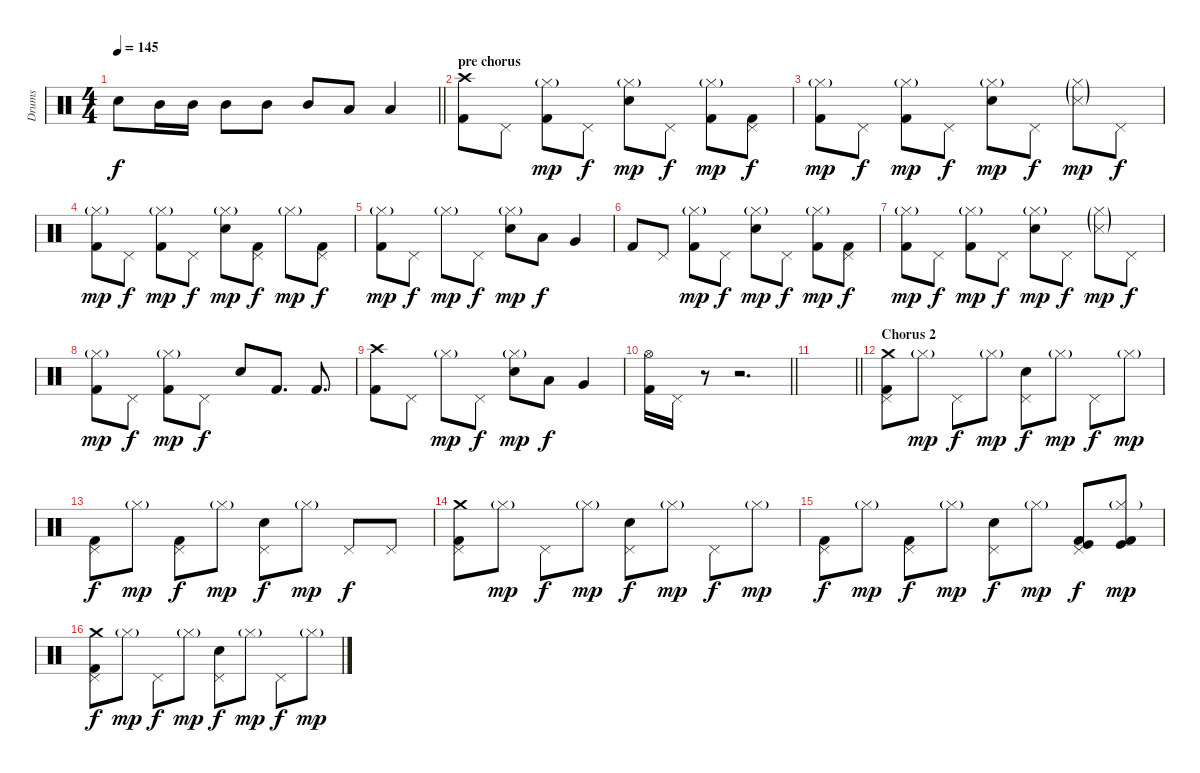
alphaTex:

\track ("Drums" "Drums") {instrument percussion}
\staff {score}
\articulation defaults
\ts (4 4)
\tempo 145
\clef neutral
\barLineRight lightlight
\ks c "Snare (hit) 2".8{dy f} "Mid Tom (hit)".16 "Mid Tom (hit)".16 "Mid Tom (hit)".8 "Mid Tom (hit)".8 "Mid Tom (hit)".8 "Low Tom (hit)".8 "Low Floor Tom (hit)".4
|
\section ("" "pre chorus")
("Crash high (hit)" "Kick (hit) 2").8 "Pedal Hi-Hat (hit)".8 ("Hi-Hat (closed)"{g} "Kick (hit) 2").8{dy mp} "Pedal Hi-Hat (hit)".8{dy f} ("Hi-Hat (closed)"{g} "Snare (hit) 2").8{dy mp} "Pedal Hi-Hat (hit)".8{dy f} ("Hi-Hat (closed)"{g} "Kick (hit) 2").8{dy mp} ("Pedal Hi-Hat (hit)" "Kick (hit) 2").8{dy f} |
("Hi-Hat (closed)"{g} "Kick (hit) 2").8{dy mp} "Pedal Hi-Hat (hit)".8{dy f} ("Hi-Hat (closed)"{g} "Kick (hit) 2").8{dy mp} "Pedal Hi-Hat (hit)".8{dy f} ("Hi-Hat (closed)"{g} "Snare (hit) 2").8{dy mp} "Pedal Hi-Hat (hit)".8{dy f} ("Hi-Hat (closed)"{g} "Snare (side stick) 3"{g}).8{dy mp} "Pedal Hi-Hat (hit)".8{dy f} |
("Hi-Hat (closed)"{g} "Kick (hit) 2").8{dy mp} "Pedal Hi-Hat (hit)".8{dy f} ("Hi-Hat (closed)"{g} "Kick (hit) 2").8{dy mp} "Pedal Hi-Hat (hit)".8{dy f} ("Hi-Hat (closed)"{g} "Snare (hit) 2").8{dy mp} ("Pedal Hi-Hat (hit)" "Kick (hit) 2").8{dy f} "Hi-Hat (closed)"{g}.8{dy mp} ("Pedal Hi-Hat (hit)" "Kick (hit) 2").8{dy f} |
("Hi-Hat (closed)"{g} "Kick (hit) 2").8{dy mp} "Pedal Hi-Hat (hit)".8{dy f} "Hi-Hat (closed)"{g}.8{dy mp} "Pedal Hi-Hat (hit)".8{dy f} ("Hi-Hat (closed)"{g} "Snare (hit) 2").8{dy mp} "Low Tom (hit)".8{dy f} "Very Low Tom (hit)".4 |
"Kick (hit) 2".8 "Pedal Hi-Hat (hit)".8 ("Hi-Hat (closed)"{g} "Kick (hit) 2").8{dy mp} "Pedal Hi-Hat (hit)".8{dy f} ("Hi-Hat (closed)"{g} "Snare (hit) 2").8{dy mp} "Pedal Hi-Hat (hit)".8{dy f} ("Hi-Hat (closed)"{g} "Kick (hit) 2").8{dy mp} ("Pedal Hi-Hat (hit)" "Kick (hit) 2").8{dy f} |
("Hi-Hat (closed)"{g} "Kick (hit) 2").8{dy mp} "Pedal Hi-Hat (hit)".8{dy f} ("Hi-Hat (closed)"{g} "Kick (hit) 2").8{dy mp} "Pedal Hi-Hat (hit)".8{dy f} ("Hi-Hat (closed)"{g} "Snare (hit) 2").8{dy mp} "Pedal Hi-Hat (hit)".8{dy f} ("Hi-Hat (closed)"{g} "Snare (side stick) 3"{g}).8{dy mp} "Pedal Hi-Hat (hit)".8{dy f} |
("Hi-Hat (closed)"{g} "Kick (hit) 2").8{dy mp} "Pedal Hi-Hat (hit)".8{dy f} ("Hi-Hat (closed)"{g} "Kick (hit) 2").8{dy mp} "Pedal Hi-Hat (hit)".8{dy f} "Snare (hit) 2".8 "Kick (hit) 2".8{d} "Kick (hit) 2".8{d} |
("Crash high (hit)" "Kick (hit) 2").8 "Pedal Hi-Hat (hit)".8 "Hi-Hat (closed)"{g}.8{dy mp} "Pedal Hi-Hat (hit)".8{dy f} ("Hi-Hat (closed)"{g} "Snare (hit) 2").8{dy mp} "Low Tom (hit)".8{dy f} "Very Low Tom (hit)".4 |
\barLineRight lightlight
("Hi-Hat (open)" "Kick (hit) 2").16 "Pedal Hi-Hat (hit)".16 r.8 r.2{d} |
\barLineRight lightlight
|
\section ("" "Chorus 2")
("Pedal Hi-Hat (hit)" "Crash medium (hit)" "Kick (hit) 2").8 "Hi-Hat (closed)"{g}.8{dy mp} "Pedal Hi-Hat (hit)".8{dy f} "Hi-Hat (closed)"{g}.8{dy mp} ("Pedal Hi-Hat (hit)" "Snare (hit) 2").8{dy f} "Hi-Hat (closed)"{g}.8{dy mp} "Pedal Hi-Hat (hit)".8{dy f} "Hi-Hat (closed)"{g}.8{dy mp} |
("Pedal Hi-Hat (hit)" "Kick (hit) 2").8{dy f} "Hi-Hat (closed)"{g}.8{dy mp} ("Pedal Hi-Hat (hit)" "Kick (hit) 2").8{dy f} "Hi-Hat (closed)"{g}.8{dy mp} ("Pedal Hi-Hat (hit)" "Snare (hit) 2").8{dy f} "Hi-Hat (closed)"{g}.8{dy mp} "Pedal Hi-Hat (hit)".8{dy f} "Pedal Hi-Hat (hit)".8 |
("Pedal Hi-Hat (hit)" "Crash medium (hit)" "Kick (hit) 2").8 "Hi-Hat (closed)"{g}.8{dy mp} "Pedal Hi-Hat (hit)".8{dy f} "Hi-Hat (closed)"{g}.8{dy mp} ("Pedal Hi-Hat (hit)" "Snare (hit) 2").8{dy f} "Hi-Hat (closed)"{g}.8{dy mp} "Pedal Hi-Hat (hit)".8{dy f} "Hi-Hat (closed)"{g}.8{dy mp} |
("Pedal Hi-Hat (hit)" "Kick (hit) 2").8{dy f} "Hi-Hat (closed)"{g}.8{dy mp} ("Pedal Hi-Hat (hit)" "Kick (hit) 2").8{dy f} "Hi-Hat (closed)"{g}.8{dy mp} ("Pedal Hi-Hat (hit)" "Snare (hit) 2").8{dy f} "Hi-Hat (closed)"{g}.8{dy mp} ("Pedal Hi-Hat (hit)" "Kick (hit)" "Kick (hit) 2").8{dy f} ("Hi-Hat (closed)"{g} "Kick (hit)" "Kick (hit) 2").8{dy mp} |
("Pedal Hi-Hat (hit)" "Crash medium (hit)" "Kick (hit) 2").8{dy f} "Hi-Hat (closed)"{g}.8{dy mp} "Pedal Hi-Hat (hit)".8{dy f} "Hi-Hat (closed)"{g}.8{dy mp} ("Pedal Hi-Hat (hit)" "Snare (hit) 2").8{dy f} "Hi-Hat (closed)"{g}.8{dy mp} "Pedal Hi-Hat (hit)".8{dy f} "Hi-Hat (closed)"{g}.8{dy mp}
